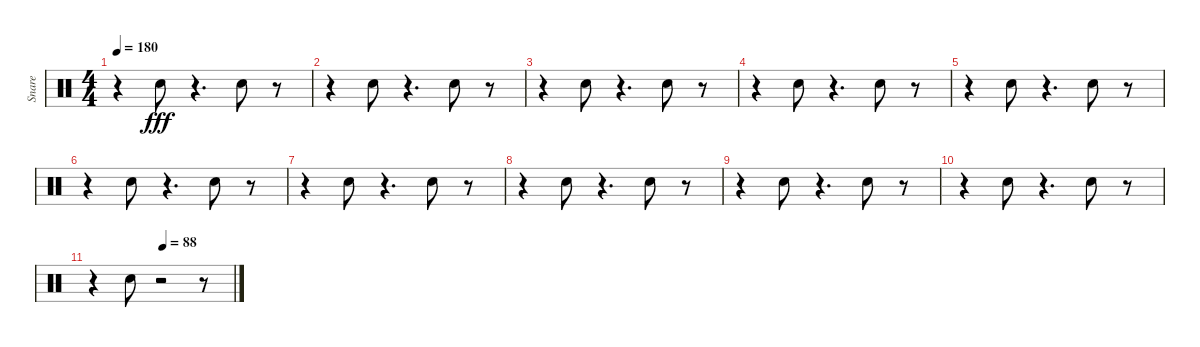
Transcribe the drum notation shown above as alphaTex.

\track ("Snare" "Snare") {instrument percussion}
\staff {score}
\articulation defaults
\ts (4 4)
\tempo 180
\clef neutral
\ks c
r.4{dy fff} "Electric Snare (hit)".8 r.4{d} "Electric Snare (hit)".8 r.8 |
r.4 "Electric Snare (hit)".8 r.4{d} "Electric Snare (hit)".8 r.8 |
r.4 "Electric Snare (hit)".8 r.4{d} "Electric Snare (hit)".8 r.8 |
r.4 "Electric Snare (hit)".8 r.4{d} "Electric Snare (hit)".8 r.8 |
r.4 "Electric Snare (hit)".8 r.4{d} "Electric Snare (hit)".8 r.8 |
r.4 "Electric Snare (hit)".8 r.4{d} "Electric Snare (hit)".8 r.8 |
r.4 "Electric Snare (hit)".8 r.4{d} "Electric Snare (hit)".8 r.8 |
r.4 "Electric Snare (hit)".8 r.4{d} "Electric Snare (hit)".8 r.8 |
r.4 "Electric Snare (hit)".8 r.4{d} "Electric Snare (hit)".8 r.8 |
r.4 "Electric Snare (hit)".8 r.4{d} "Electric Snare (hit)".8 r.8 |
\tempo (88 0.5)
r.4 "Electric Snare (hit)".8 r.2 r.8
